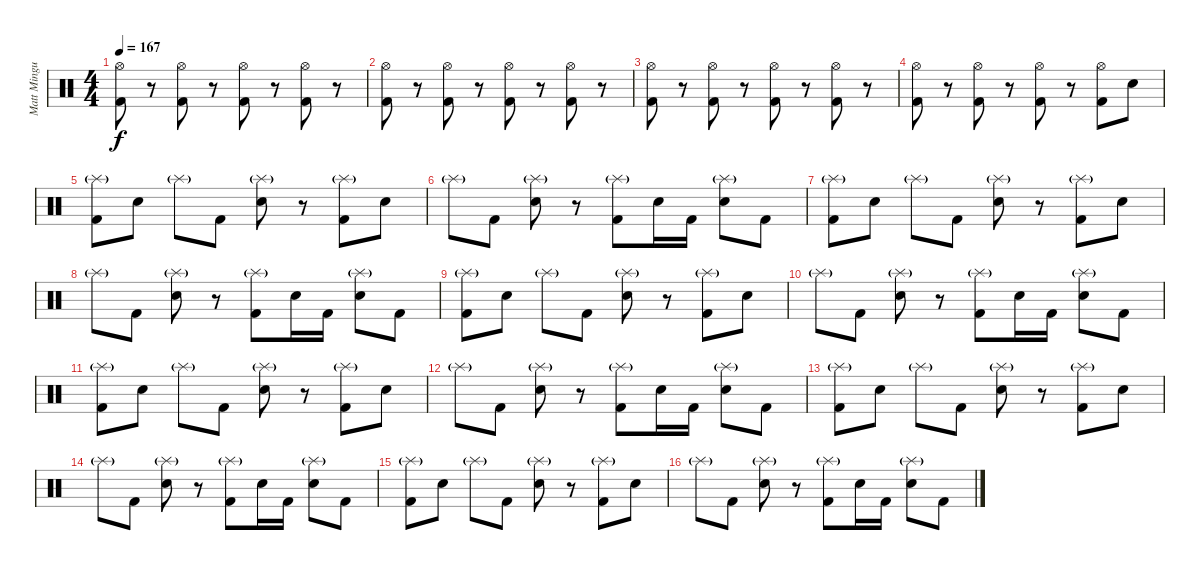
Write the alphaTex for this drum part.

\track ("Matt Mingus" "Matt Mingu") {instrument percussion}
\staff {score}
\articulation defaults
\ts (4 4)
\tempo 167
\clef neutral
\ks c
("Kick (hit) 2" "Hi-Hat (open)").8{dy f} r.8 ("Kick (hit) 2" "Hi-Hat (open)").8 r.8 ("Kick (hit) 2" "Hi-Hat (open)").8 r.8 ("Kick (hit) 2" "Hi-Hat (open)").8 r.8 |
("Kick (hit) 2" "Hi-Hat (open)").8 r.8 ("Kick (hit) 2" "Hi-Hat (open)").8 r.8 ("Kick (hit) 2" "Hi-Hat (open)").8 r.8 ("Kick (hit) 2" "Hi-Hat (open)").8 r.8 |
("Kick (hit) 2" "Hi-Hat (open)").8 r.8 ("Kick (hit) 2" "Hi-Hat (open)").8 r.8 ("Kick (hit) 2" "Hi-Hat (open)").8 r.8 ("Kick (hit) 2" "Hi-Hat (open)").8 r.8 |
("Kick (hit) 2" "Hi-Hat (open)").8 r.8 ("Kick (hit) 2" "Hi-Hat (open)").8 r.8 ("Kick (hit) 2" "Hi-Hat (open)").8 r.8 ("Kick (hit) 2" "Hi-Hat (open)").8 "Electric Snare (hit)".8 |
("Kick (hit) 2" "Splash (hit)"{g}).8 "Electric Snare (hit)".8 "Splash (hit)"{g}.8 "Kick (hit) 2".8 ("Electric Snare (hit)" "Splash (hit)"{g}).8 r.8 ("Kick (hit) 2" "Splash (hit)"{g}).8 "Electric Snare (hit)".8 |
"Splash (hit)"{g}.8 "Kick (hit) 2".8 ("Electric Snare (hit)" "Splash (hit)"{g}).8 r.8 ("Kick (hit) 2" "Splash (hit)"{g}).8 "Electric Snare (hit)".16 "Kick (hit) 2".16 ("Electric Snare (hit)" "Splash (hit)"{g}).8 "Kick (hit) 2".8 |
("Kick (hit) 2" "Splash (hit)"{g}).8 "Electric Snare (hit)".8 "Splash (hit)"{g}.8 "Kick (hit) 2".8 ("Electric Snare (hit)" "Splash (hit)"{g}).8 r.8 ("Kick (hit) 2" "Splash (hit)"{g}).8 "Electric Snare (hit)".8 |
"Splash (hit)"{g}.8 "Kick (hit) 2".8 ("Electric Snare (hit)" "Splash (hit)"{g}).8 r.8 ("Kick (hit) 2" "Splash (hit)"{g}).8 "Electric Snare (hit)".16 "Kick (hit) 2".16 ("Electric Snare (hit)" "Splash (hit)"{g}).8 "Kick (hit) 2".8 |
("Kick (hit) 2" "Splash (hit)"{g}).8 "Electric Snare (hit)".8 "Splash (hit)"{g}.8 "Kick (hit) 2".8 ("Electric Snare (hit)" "Splash (hit)"{g}).8 r.8 ("Kick (hit) 2" "Splash (hit)"{g}).8 "Electric Snare (hit)".8 |
"Splash (hit)"{g}.8 "Kick (hit) 2".8 ("Electric Snare (hit)" "Splash (hit)"{g}).8 r.8 ("Kick (hit) 2" "Splash (hit)"{g}).8 "Electric Snare (hit)".16 "Kick (hit) 2".16 ("Electric Snare (hit)" "Splash (hit)"{g}).8 "Kick (hit) 2".8 |
("Kick (hit) 2" "Splash (hit)"{g}).8 "Electric Snare (hit)".8 "Splash (hit)"{g}.8 "Kick (hit) 2".8 ("Electric Snare (hit)" "Splash (hit)"{g}).8 r.8 ("Kick (hit) 2" "Splash (hit)"{g}).8 "Electric Snare (hit)".8 |
"Splash (hit)"{g}.8 "Kick (hit) 2".8 ("Electric Snare (hit)" "Splash (hit)"{g}).8 r.8 ("Kick (hit) 2" "Splash (hit)"{g}).8 "Electric Snare (hit)".16 "Kick (hit) 2".16 ("Electric Snare (hit)" "Splash (hit)"{g}).8 "Kick (hit) 2".8 |
("Kick (hit) 2" "Splash (hit)"{g}).8 "Electric Snare (hit)".8 "Splash (hit)"{g}.8 "Kick (hit) 2".8 ("Electric Snare (hit)" "Splash (hit)"{g}).8 r.8 ("Kick (hit) 2" "Splash (hit)"{g}).8 "Electric Snare (hit)".8 |
"Splash (hit)"{g}.8 "Kick (hit) 2".8 ("Electric Snare (hit)" "Splash (hit)"{g}).8 r.8 ("Kick (hit) 2" "Splash (hit)"{g}).8 "Electric Snare (hit)".16 "Kick (hit) 2".16 ("Electric Snare (hit)" "Splash (hit)"{g}).8 "Kick (hit) 2".8 |
("Kick (hit) 2" "Splash (hit)"{g}).8 "Electric Snare (hit)".8 "Splash (hit)"{g}.8 "Kick (hit) 2".8 ("Electric Snare (hit)" "Splash (hit)"{g}).8 r.8 ("Kick (hit) 2" "Splash (hit)"{g}).8 "Electric Snare (hit)".8 |
"Splash (hit)"{g}.8 "Kick (hit) 2".8 ("Electric Snare (hit)" "Splash (hit)"{g}).8 r.8 ("Kick (hit) 2" "Splash (hit)"{g}).8 "Electric Snare (hit)".16 "Kick (hit) 2".16 ("Electric Snare (hit)" "Splash (hit)"{g}).8 "Kick (hit) 2".8
